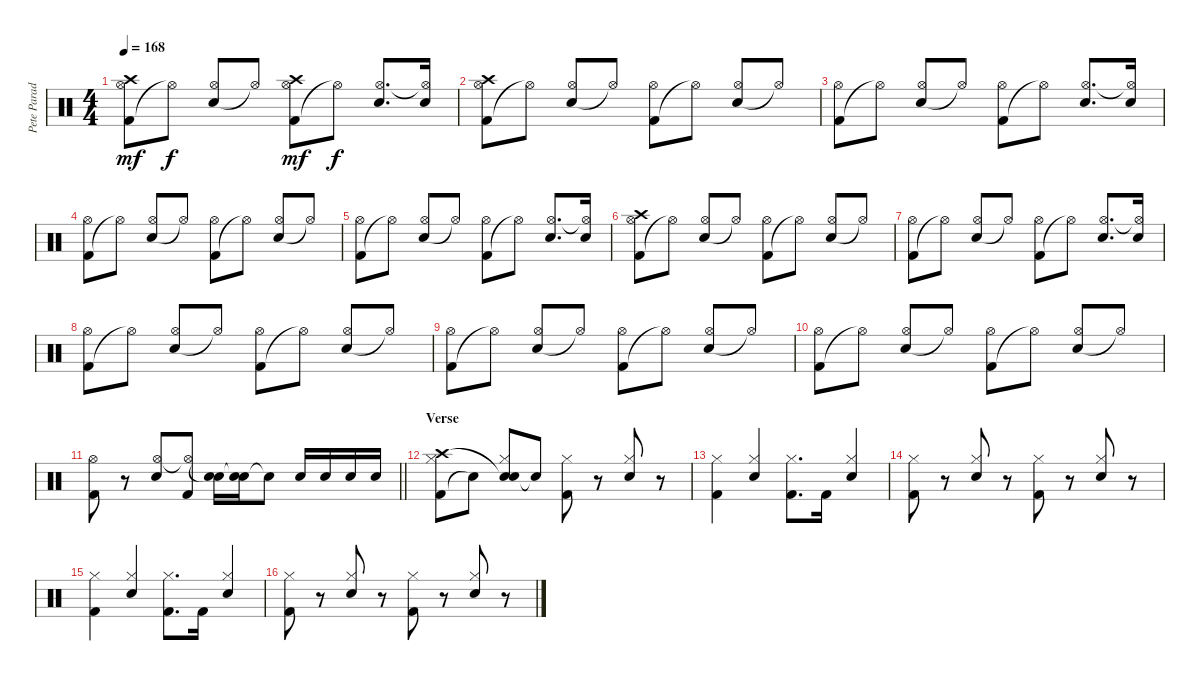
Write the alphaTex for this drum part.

\track ("Pete Parada" "Pete Parad") {instrument percussion}
\staff {score}
\articulation defaults
\ts (4 4)
\tempo 168
\clef neutral
\ks c
("Kick (hit) 2" "Hi-Hat (open)" "Crash high (hit)").8{dy mf} "Hi-Hat (open)"{t}.8{dy f} ("Electric Snare (hit)" "Hi-Hat (open)").8{beam Up} "Hi-Hat (open)"{t}.8{beam Up} ("Kick (hit) 2" "Hi-Hat (open)" "Crash high (hit)").8{dy mf} "Hi-Hat (open)"{t}.8{dy f} ("Electric Snare (hit)" "Hi-Hat (open)").8{d beam Up} ("Electric Snare (hit)" "Hi-Hat (open)"{t}).16{beam Up} |
("Kick (hit) 2" "Hi-Hat (open)" "Crash high (hit)").8 "Hi-Hat (open)"{t}.8 ("Electric Snare (hit)" "Hi-Hat (open)").8{beam Up} "Hi-Hat (open)"{t}.8{beam Up} ("Kick (hit) 2" "Hi-Hat (open)").8 "Hi-Hat (open)"{t}.8 ("Electric Snare (hit)" "Hi-Hat (open)").8{beam Up} "Hi-Hat (open)"{t}.8{beam Up} |
("Kick (hit) 2" "Hi-Hat (open)").8 "Hi-Hat (open)"{t}.8 ("Electric Snare (hit)" "Hi-Hat (open)").8{beam Up} "Hi-Hat (open)"{t}.8{beam Up} ("Kick (hit) 2" "Hi-Hat (open)").8 "Hi-Hat (open)"{t}.8 ("Electric Snare (hit)" "Hi-Hat (open)").8{d beam Up} ("Electric Snare (hit)" "Hi-Hat (open)"{t}).16{beam Up} |
("Kick (hit) 2" "Hi-Hat (open)").8 "Hi-Hat (open)"{t}.8 ("Electric Snare (hit)" "Hi-Hat (open)").8{beam Up} "Hi-Hat (open)"{t}.8{beam Up} ("Kick (hit) 2" "Hi-Hat (open)").8 "Hi-Hat (open)"{t}.8 ("Electric Snare (hit)" "Hi-Hat (open)").8{beam Up} "Hi-Hat (open)"{t}.8{beam Up} |
("Kick (hit) 2" "Hi-Hat (open)").8 "Hi-Hat (open)"{t}.8 ("Electric Snare (hit)" "Hi-Hat (open)").8{beam Up} "Hi-Hat (open)"{t}.8{beam Up} ("Kick (hit) 2" "Hi-Hat (open)").8 "Hi-Hat (open)"{t}.8 ("Electric Snare (hit)" "Hi-Hat (open)").8{d beam Up} ("Electric Snare (hit)" "Hi-Hat (open)"{t}).16{beam Up} |
("Kick (hit) 2" "Hi-Hat (open)" "Crash high (hit)").8 "Hi-Hat (open)"{t}.8 ("Electric Snare (hit)" "Hi-Hat (open)").8{beam Up} "Hi-Hat (open)"{t}.8{beam Up} ("Kick (hit) 2" "Hi-Hat (open)").8 "Hi-Hat (open)"{t}.8 ("Electric Snare (hit)" "Hi-Hat (open)").8{beam Up} "Hi-Hat (open)"{t}.8{beam Up} |
("Kick (hit) 2" "Hi-Hat (open)").8 "Hi-Hat (open)"{t}.8 ("Electric Snare (hit)" "Hi-Hat (open)").8{beam Up} "Hi-Hat (open)"{t}.8{beam Up} ("Kick (hit) 2" "Hi-Hat (open)").8 "Hi-Hat (open)"{t}.8 ("Electric Snare (hit)" "Hi-Hat (open)").8{d beam Up} ("Electric Snare (hit)" "Hi-Hat (open)"{t}).16{beam Up} |
("Kick (hit) 2" "Hi-Hat (open)").8 "Hi-Hat (open)"{t}.8 ("Electric Snare (hit)" "Hi-Hat (open)").8{beam Up} "Hi-Hat (open)"{t}.8{beam Up} ("Kick (hit) 2" "Hi-Hat (open)").8 "Hi-Hat (open)"{t}.8 ("Electric Snare (hit)" "Hi-Hat (open)").8{beam Up} "Hi-Hat (open)"{t}.8{beam Up} |
("Kick (hit) 2" "Hi-Hat (open)").8 "Hi-Hat (open)"{t}.8 ("Electric Snare (hit)" "Hi-Hat (open)").8{beam Up} "Hi-Hat (open)"{t}.8{beam Up} ("Kick (hit) 2" "Hi-Hat (open)").8 "Hi-Hat (open)"{t}.8 ("Electric Snare (hit)" "Hi-Hat (open)").8{beam Up} "Hi-Hat (open)"{t}.8{beam Up} |
("Kick (hit) 2" "Hi-Hat (open)").8 "Hi-Hat (open)"{t}.8 ("Electric Snare (hit)" "Hi-Hat (open)").8{beam Up} "Hi-Hat (open)"{t}.8{beam Up} ("Kick (hit) 2" "Hi-Hat (open)").8 "Hi-Hat (open)"{t}.8 ("Electric Snare (hit)" "Hi-Hat (open)").8{beam Up} "Hi-Hat (open)"{t}.8{beam Up} |
\barLineRight lightlight
("Kick (hit) 2" "Hi-Hat (open)").8 r.8 ("Electric Snare (hit)" "Hi-Hat (open)").8{beam Up} ("Kick (hit) 2" "Hi-Hat (open)"{t}).8 ("Electric Snare (hit)" "Snare (hit)"{t}).16 ("Electric Snare (hit)" "Snare (hit)"{t}).16 "Snare (hit)"{t}.8 "Electric Snare (hit)".16{beam Up} "Electric Snare (hit)".16{beam Up} "Electric Snare (hit)".16{beam Up} "Electric Snare (hit)".16{beam Up} |
\section ("" "Verse")
("Kick (hit) 2" "Hi-Hat (closed)" "Crash high (hit)").8 "Snare (hit)"{t}.8 ("Electric Snare (hit)" "Hi-Hat (closed)" "Snare (hit)"{t}).8{beam Up} "Snare (hit)"{t}.8 ("Kick (hit) 2" "Hi-Hat (closed)").8 r.8 ("Electric Snare (hit)" "Hi-Hat (closed)").8{beam Up} r.8 |
("Kick (hit) 2" "Hi-Hat (closed)").4{beam Down} ("Electric Snare (hit)" "Hi-Hat (closed)").4{beam Up} ("Kick (hit) 2" "Hi-Hat (closed)").8{d} "Kick (hit) 2".16 ("Electric Snare (hit)" "Hi-Hat (closed)").4{beam Up} |
("Kick (hit) 2" "Hi-Hat (closed)").8 r.8 ("Electric Snare (hit)" "Hi-Hat (closed)").8{beam Up} r.8 ("Kick (hit) 2" "Hi-Hat (closed)").8 r.8 ("Electric Snare (hit)" "Hi-Hat (closed)").8{beam Up} r.8 |
("Kick (hit) 2" "Hi-Hat (closed)").4{beam Down} ("Electric Snare (hit)" "Hi-Hat (closed)").4{beam Up} ("Kick (hit) 2" "Hi-Hat (closed)").8{d} "Kick (hit) 2".16 ("Electric Snare (hit)" "Hi-Hat (closed)").4{beam Up} |
("Kick (hit) 2" "Hi-Hat (closed)").8 r.8 ("Electric Snare (hit)" "Hi-Hat (closed)").8{beam Up} r.8 ("Kick (hit) 2" "Hi-Hat (closed)").8 r.8 ("Electric Snare (hit)" "Hi-Hat (closed)").8{beam Up} r.8
